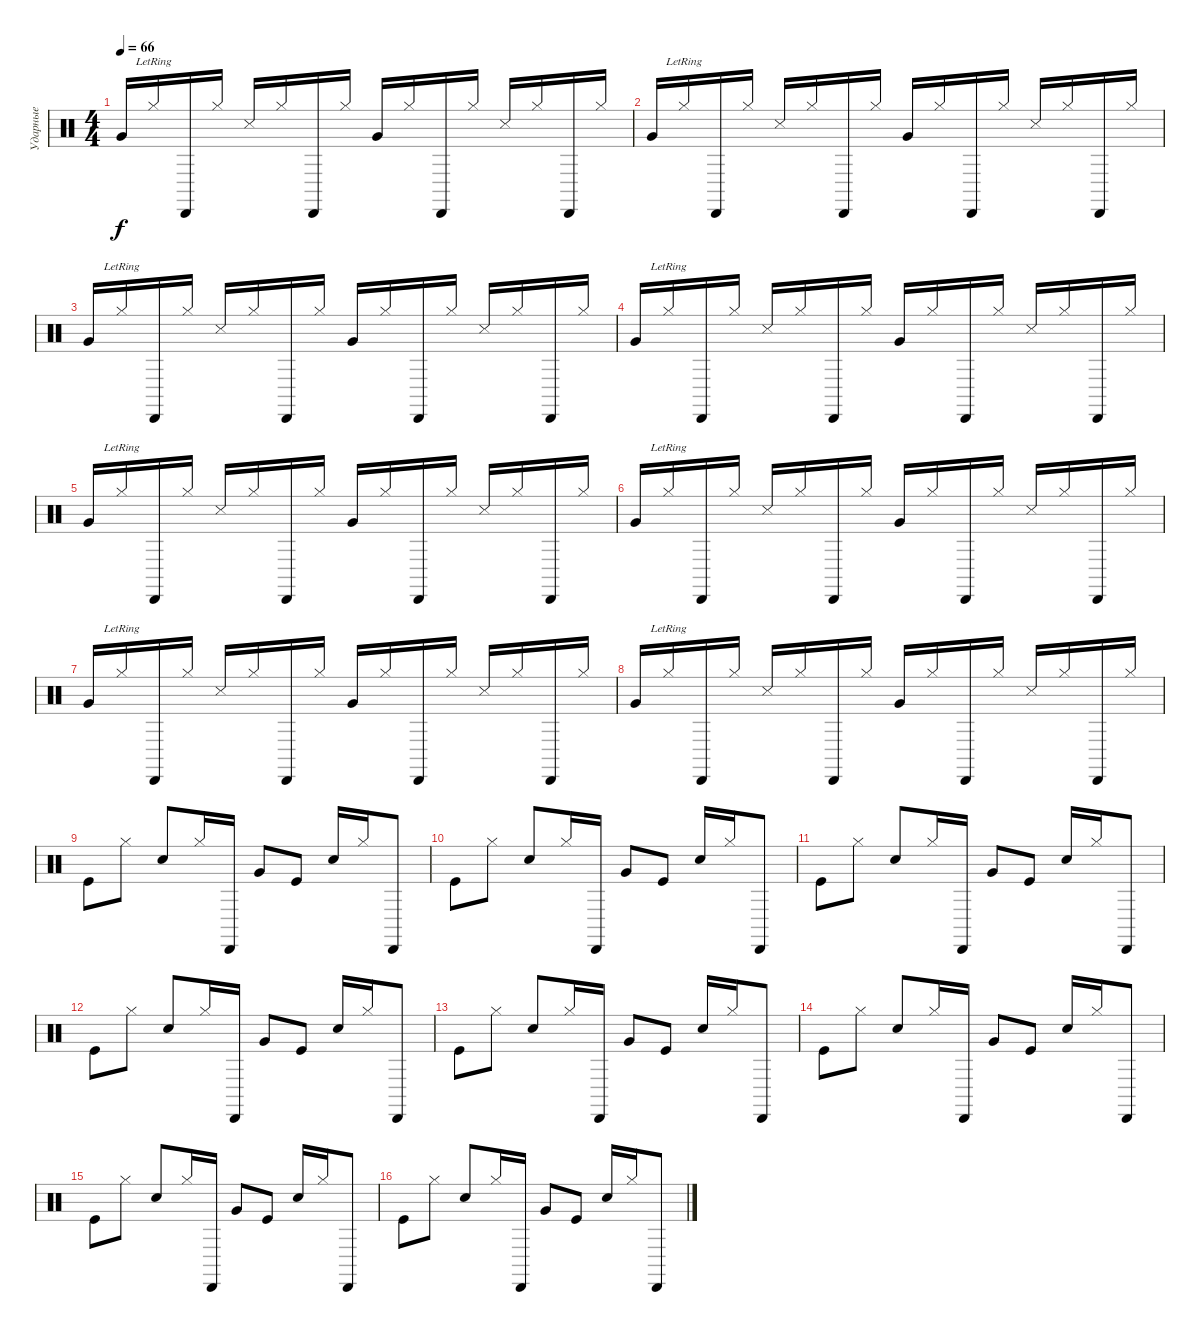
\track ("Ударные" "Ударные") {instrument percussion}
\staff {score}
\articulation defaults
\ts (4 4)
\tempo 66
\clef neutral
\ks c "Very Low Tom (hit)".16{dy f} "Hi-Hat (closed)"{lr}.16 "Cabasa (hit)".16 "Hi-Hat (closed)".16 "Snare (side stick) 3".16 "Hi-Hat (closed)".16 "Cabasa (hit)".16 "Hi-Hat (closed)".16 "Very Low Tom (hit)".16 "Hi-Hat (closed)".16 "Cabasa (hit)".16 "Hi-Hat (closed)".16 "Snare (side stick) 3".16 "Hi-Hat (closed)".16 "Cabasa (hit)".16 "Hi-Hat (closed)".16
|
"Very Low Tom (hit)".16 "Hi-Hat (closed)"{lr}.16 "Cabasa (hit)".16 "Hi-Hat (closed)".16 "Snare (side stick) 3".16 "Hi-Hat (closed)".16 "Cabasa (hit)".16 "Hi-Hat (closed)".16 "Very Low Tom (hit)".16 "Hi-Hat (closed)".16 "Cabasa (hit)".16 "Hi-Hat (closed)".16 "Snare (side stick) 3".16 "Hi-Hat (closed)".16 "Cabasa (hit)".16 "Hi-Hat (closed)".16 |
"Very Low Tom (hit)".16 "Hi-Hat (closed)"{lr}.16 "Cabasa (hit)".16 "Hi-Hat (closed)".16 "Snare (side stick) 3".16 "Hi-Hat (closed)".16 "Cabasa (hit)".16 "Hi-Hat (closed)".16 "Very Low Tom (hit)".16 "Hi-Hat (closed)".16 "Cabasa (hit)".16 "Hi-Hat (closed)".16 "Snare (side stick) 3".16 "Hi-Hat (closed)".16 "Cabasa (hit)".16 "Hi-Hat (closed)".16 |
"Very Low Tom (hit)".16 "Hi-Hat (closed)"{lr}.16 "Cabasa (hit)".16 "Hi-Hat (closed)".16 "Snare (side stick) 3".16 "Hi-Hat (closed)".16 "Cabasa (hit)".16 "Hi-Hat (closed)".16 "Very Low Tom (hit)".16 "Hi-Hat (closed)".16 "Cabasa (hit)".16 "Hi-Hat (closed)".16 "Snare (side stick) 3".16 "Hi-Hat (closed)".16 "Cabasa (hit)".16 "Hi-Hat (closed)".16 |
"Very Low Tom (hit)".16 "Hi-Hat (closed)"{lr}.16 "Cabasa (hit)".16 "Hi-Hat (closed)".16 "Snare (side stick) 3".16 "Hi-Hat (closed)".16 "Cabasa (hit)".16 "Hi-Hat (closed)".16 "Very Low Tom (hit)".16 "Hi-Hat (closed)".16 "Cabasa (hit)".16 "Hi-Hat (closed)".16 "Snare (side stick) 3".16 "Hi-Hat (closed)".16 "Cabasa (hit)".16 "Hi-Hat (closed)".16 |
"Very Low Tom (hit)".16 "Hi-Hat (closed)"{lr}.16 "Cabasa (hit)".16 "Hi-Hat (closed)".16 "Snare (side stick) 3".16 "Hi-Hat (closed)".16 "Cabasa (hit)".16 "Hi-Hat (closed)".16 "Very Low Tom (hit)".16 "Hi-Hat (closed)".16 "Cabasa (hit)".16 "Hi-Hat (closed)".16 "Snare (side stick) 3".16 "Hi-Hat (closed)".16 "Cabasa (hit)".16 "Hi-Hat (closed)".16 |
"Very Low Tom (hit)".16 "Hi-Hat (closed)"{lr}.16 "Cabasa (hit)".16 "Hi-Hat (closed)".16 "Snare (side stick) 3".16 "Hi-Hat (closed)".16 "Cabasa (hit)".16 "Hi-Hat (closed)".16 "Very Low Tom (hit)".16 "Hi-Hat (closed)".16 "Cabasa (hit)".16 "Hi-Hat (closed)".16 "Snare (side stick) 3".16 "Hi-Hat (closed)".16 "Cabasa (hit)".16 "Hi-Hat (closed)".16 |
"Very Low Tom (hit)".16 "Hi-Hat (closed)"{lr}.16 "Cabasa (hit)".16 "Hi-Hat (closed)".16 "Snare (side stick) 3".16 "Hi-Hat (closed)".16 "Cabasa (hit)".16 "Hi-Hat (closed)".16 "Very Low Tom (hit)".16 "Hi-Hat (closed)".16 "Cabasa (hit)".16 "Hi-Hat (closed)".16 "Snare (side stick) 3".16 "Hi-Hat (closed)".16 "Cabasa (hit)".16 "Hi-Hat (closed)".16 |
"Kick (hit)".8 "Hi-Hat (closed)".8 "Snare (hit) 2".8 "Hi-Hat (closed)".16 "Cabasa (hit)".16 "Very Low Tom (hit)".8 "Kick (hit)".8 "Snare (hit) 2".16 "Hi-Hat (closed)".16 "Cabasa (hit)".8 |
"Kick (hit)".8 "Hi-Hat (closed)".8 "Snare (hit) 2".8 "Hi-Hat (closed)".16 "Cabasa (hit)".16 "Very Low Tom (hit)".8 "Kick (hit)".8 "Snare (hit) 2".16 "Hi-Hat (closed)".16 "Cabasa (hit)".8 |
"Kick (hit)".8 "Hi-Hat (closed)".8 "Snare (hit) 2".8 "Hi-Hat (closed)".16 "Cabasa (hit)".16 "Very Low Tom (hit)".8 "Kick (hit)".8 "Snare (hit) 2".16 "Hi-Hat (closed)".16 "Cabasa (hit)".8 |
"Kick (hit)".8 "Hi-Hat (closed)".8 "Snare (hit) 2".8 "Hi-Hat (closed)".16 "Cabasa (hit)".16 "Very Low Tom (hit)".8 "Kick (hit)".8 "Snare (hit) 2".16 "Hi-Hat (closed)".16 "Cabasa (hit)".8 |
"Kick (hit)".8 "Hi-Hat (closed)".8 "Snare (hit) 2".8 "Hi-Hat (closed)".16 "Cabasa (hit)".16 "Very Low Tom (hit)".8 "Kick (hit)".8 "Snare (hit) 2".16 "Hi-Hat (closed)".16 "Cabasa (hit)".8 |
"Kick (hit)".8 "Hi-Hat (closed)".8 "Snare (hit) 2".8 "Hi-Hat (closed)".16 "Cabasa (hit)".16 "Very Low Tom (hit)".8 "Kick (hit)".8 "Snare (hit) 2".16 "Hi-Hat (closed)".16 "Cabasa (hit)".8 |
"Kick (hit)".8 "Hi-Hat (closed)".8 "Snare (hit) 2".8 "Hi-Hat (closed)".16 "Cabasa (hit)".16 "Very Low Tom (hit)".8 "Kick (hit)".8 "Snare (hit) 2".16 "Hi-Hat (closed)".16 "Cabasa (hit)".8 |
"Kick (hit)".8 "Hi-Hat (closed)".8 "Snare (hit) 2".8 "Hi-Hat (closed)".16 "Cabasa (hit)".16 "Very Low Tom (hit)".8 "Kick (hit)".8 "Snare (hit) 2".16 "Hi-Hat (closed)".16 "Cabasa (hit)".8
